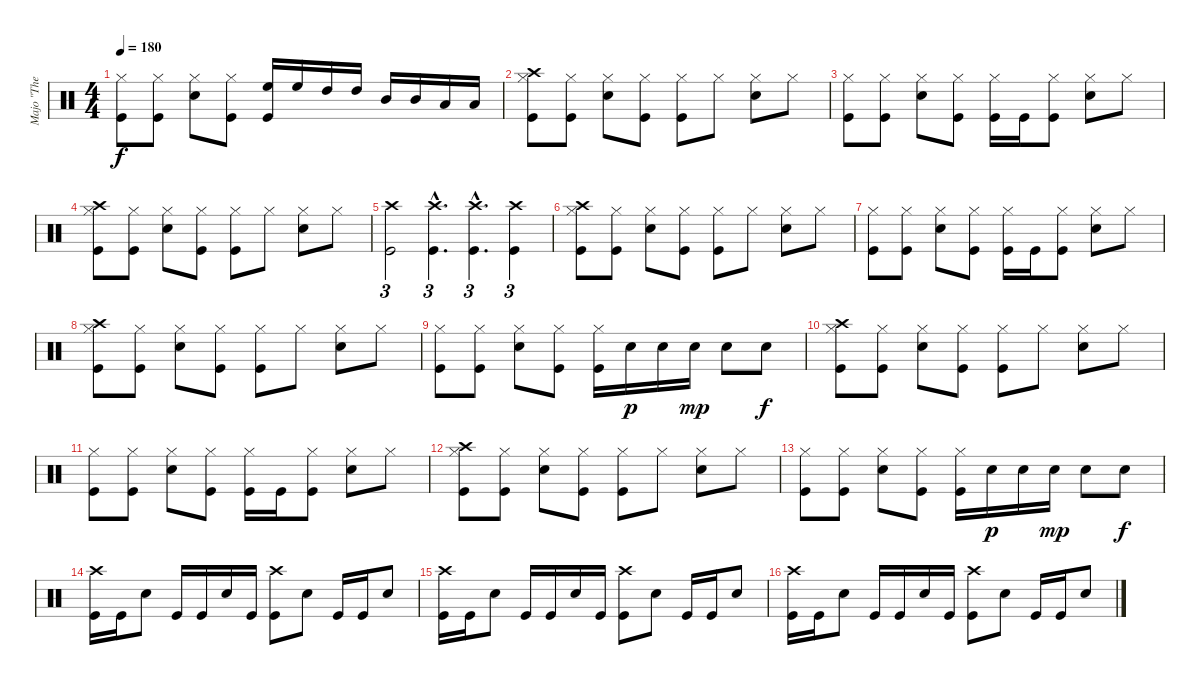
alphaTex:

\track ("Majo \"The Dremmel\" Hirt" "Majo \"The ") {instrument percussion}
\staff {score}
\articulation defaults
\ts (4 4)
\tempo 180
\clef neutral
\ks c
("Hi-Hat (closed)" "Kick (hit)").8{dy f} ("Hi-Hat (closed)" "Kick (hit)").8 ("Hi-Hat (closed)" "Electric Snare (hit)").8 ("Hi-Hat (closed)" "Kick (hit)").8 ("High Floor Tom (hit)" "Kick (hit)").16 "High Floor Tom (hit)".16 "High Tom (hit)".16 "High Tom (hit)".16 "Mid Tom (hit)".16 "Mid Tom (hit)".16 "Low Tom (hit)".16 "Low Tom (hit)".16 |
("Crash high (hit)" "Hi-Hat (closed)" "Kick (hit)").8 ("Hi-Hat (closed)" "Kick (hit)").8 ("Hi-Hat (closed)" "Electric Snare (hit)").8 ("Hi-Hat (closed)" "Kick (hit)").8 ("Hi-Hat (closed)" "Kick (hit)").8 "Hi-Hat (closed)".8 ("Hi-Hat (closed)" "Electric Snare (hit)").8 "Hi-Hat (closed)".8 |
("Hi-Hat (closed)" "Kick (hit)").8 ("Hi-Hat (closed)" "Kick (hit)").8 ("Hi-Hat (closed)" "Electric Snare (hit)").8 ("Hi-Hat (closed)" "Kick (hit)").8 ("Hi-Hat (closed)" "Kick (hit)").16 "Kick (hit)".16 ("Hi-Hat (closed)" "Kick (hit)").8 ("Hi-Hat (closed)" "Electric Snare (hit)").8 "Hi-Hat (closed)".8 |
("Crash high (hit)" "Hi-Hat (closed)" "Kick (hit)").8 ("Hi-Hat (closed)" "Kick (hit)").8 ("Hi-Hat (closed)" "Electric Snare (hit)").8 ("Hi-Hat (closed)" "Kick (hit)").8 ("Hi-Hat (closed)" "Kick (hit)").8 "Hi-Hat (closed)".8 ("Hi-Hat (closed)" "Electric Snare (hit)").8 "Hi-Hat (closed)".8 |
("Crash high (hit)" "Kick (hit)").2{tu (3 2)} ("Crash high (hit)"{hac} "Kick (hit)"{hac}).4{d tu (3 2)} ("Crash high (hit)"{hac} "Kick (hit)"{hac}).4{d tu (3 2)} ("Crash high (hit)" "Kick (hit)").4{tu (3 2)} |
("Crash high (hit)" "Hi-Hat (closed)" "Kick (hit)").8 ("Hi-Hat (closed)" "Kick (hit)").8 ("Hi-Hat (closed)" "Electric Snare (hit)").8 ("Hi-Hat (closed)" "Kick (hit)").8 ("Hi-Hat (closed)" "Kick (hit)").8 "Hi-Hat (closed)".8 ("Hi-Hat (closed)" "Electric Snare (hit)").8 "Hi-Hat (closed)".8 |
("Hi-Hat (closed)" "Kick (hit)").8 ("Hi-Hat (closed)" "Kick (hit)").8 ("Hi-Hat (closed)" "Electric Snare (hit)").8 ("Hi-Hat (closed)" "Kick (hit)").8 ("Hi-Hat (closed)" "Kick (hit)").16 "Kick (hit)".16 ("Hi-Hat (closed)" "Kick (hit)").8 ("Hi-Hat (closed)" "Electric Snare (hit)").8 "Hi-Hat (closed)".8 |
("Crash high (hit)" "Hi-Hat (closed)" "Kick (hit)").8 ("Hi-Hat (closed)" "Kick (hit)").8 ("Hi-Hat (closed)" "Electric Snare (hit)").8 ("Hi-Hat (closed)" "Kick (hit)").8 ("Hi-Hat (closed)" "Kick (hit)").8 "Hi-Hat (closed)".8 ("Hi-Hat (closed)" "Electric Snare (hit)").8 "Hi-Hat (closed)".8 |
("Hi-Hat (closed)" "Kick (hit)").8 ("Hi-Hat (closed)" "Kick (hit)").8 ("Hi-Hat (closed)" "Electric Snare (hit)").8 ("Hi-Hat (closed)" "Kick (hit)").8 ("Hi-Hat (closed)" "Kick (hit)").16 "Electric Snare (hit)".16{dy p} "Electric Snare (hit)".16 "Electric Snare (hit)".16{dy mp} "Electric Snare (hit)".8 "Electric Snare (hit)".8{dy f} |
("Crash high (hit)" "Hi-Hat (closed)" "Kick (hit)").8 ("Hi-Hat (closed)" "Kick (hit)").8 ("Hi-Hat (closed)" "Electric Snare (hit)").8 ("Hi-Hat (closed)" "Kick (hit)").8 ("Hi-Hat (closed)" "Kick (hit)").8 "Hi-Hat (closed)".8 ("Hi-Hat (closed)" "Electric Snare (hit)").8 "Hi-Hat (closed)".8 |
("Hi-Hat (closed)" "Kick (hit)").8 ("Hi-Hat (closed)" "Kick (hit)").8 ("Hi-Hat (closed)" "Electric Snare (hit)").8 ("Hi-Hat (closed)" "Kick (hit)").8 ("Hi-Hat (closed)" "Kick (hit)").16 "Kick (hit)".16 ("Hi-Hat (closed)" "Kick (hit)").8 ("Hi-Hat (closed)" "Electric Snare (hit)").8 "Hi-Hat (closed)".8 |
("Crash high (hit)" "Hi-Hat (closed)" "Kick (hit)").8 ("Hi-Hat (closed)" "Kick (hit)").8 ("Hi-Hat (closed)" "Electric Snare (hit)").8 ("Hi-Hat (closed)" "Kick (hit)").8 ("Hi-Hat (closed)" "Kick (hit)").8 "Hi-Hat (closed)".8 ("Hi-Hat (closed)" "Electric Snare (hit)").8 "Hi-Hat (closed)".8 |
("Hi-Hat (closed)" "Kick (hit)").8 ("Hi-Hat (closed)" "Kick (hit)").8 ("Hi-Hat (closed)" "Electric Snare (hit)").8 ("Hi-Hat (closed)" "Kick (hit)").8 ("Hi-Hat (closed)" "Kick (hit)").16 "Electric Snare (hit)".16{dy p} "Electric Snare (hit)".16 "Electric Snare (hit)".16{dy mp} "Electric Snare (hit)".8 "Electric Snare (hit)".8{dy f} |
("Crash high (hit)" "Kick (hit)").16 "Kick (hit)".16 "Electric Snare (hit)".8 "Kick (hit)".16 "Kick (hit)".16 "Electric Snare (hit)".16 "Kick (hit)".16 ("Crash high (hit)" "Kick (hit)").8 "Electric Snare (hit)".8 "Kick (hit)".16 "Kick (hit)".16 "Electric Snare (hit)".8 |
("Crash high (hit)" "Kick (hit)").16 "Kick (hit)".16 "Electric Snare (hit)".8 "Kick (hit)".16 "Kick (hit)".16 "Electric Snare (hit)".16 "Kick (hit)".16 ("Crash high (hit)" "Kick (hit)").8 "Electric Snare (hit)".8 "Kick (hit)".16 "Kick (hit)".16 "Electric Snare (hit)".8 |
("Crash high (hit)" "Kick (hit)").16 "Kick (hit)".16 "Electric Snare (hit)".8 "Kick (hit)".16 "Kick (hit)".16 "Electric Snare (hit)".16 "Kick (hit)".16 ("Crash high (hit)" "Kick (hit)").8 "Electric Snare (hit)".8 "Kick (hit)".16 "Kick (hit)".16 "Electric Snare (hit)".8
